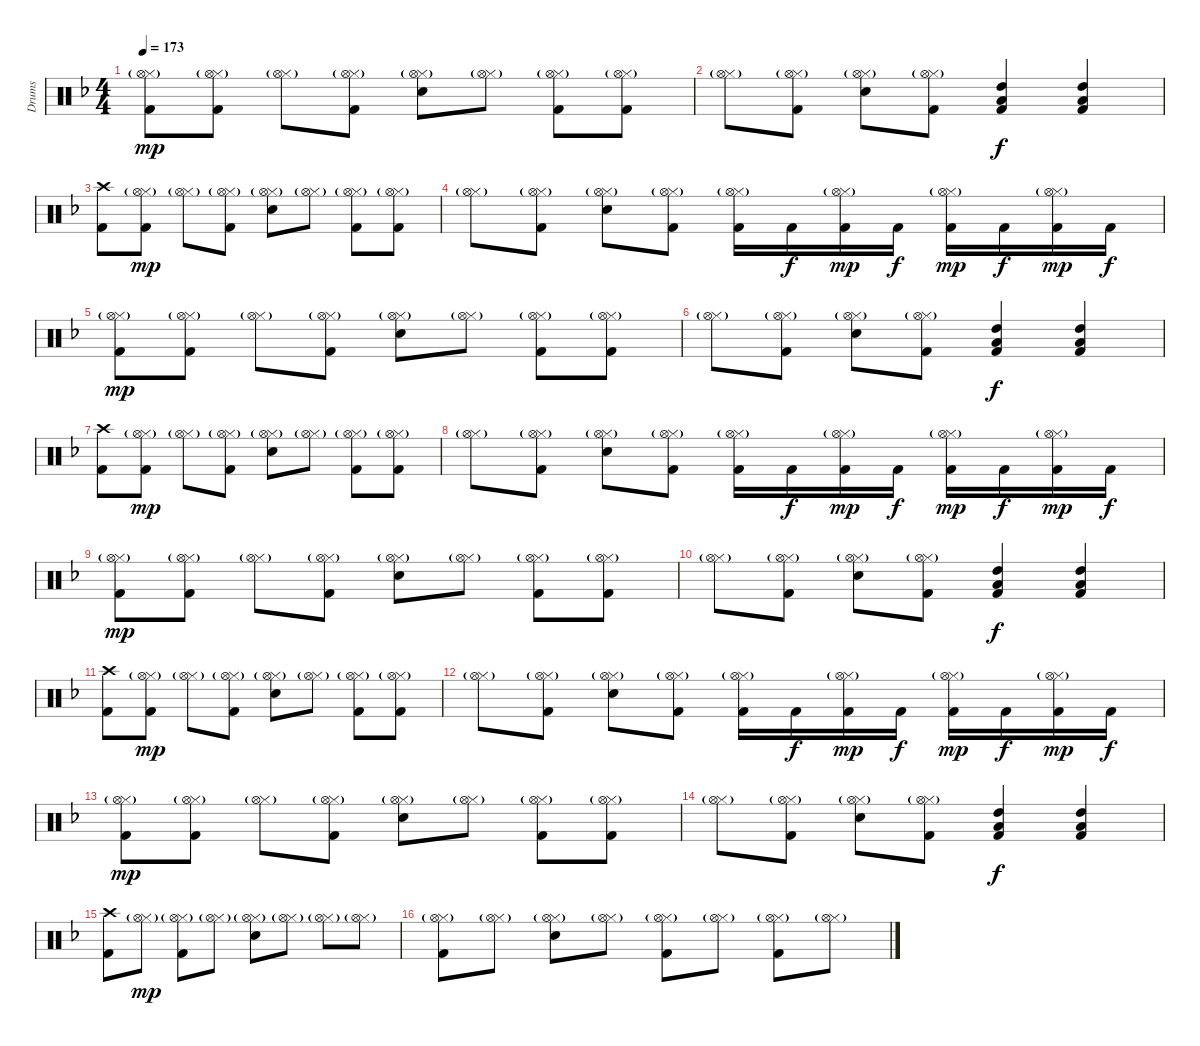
\track ("Drums" "Drums") {instrument percussion}
\staff {score}
\articulation defaults
\ts (4 4)
\tempo 173
\clef neutral
\ks dminor
("Hi-Hat (closed)"{g} "Hi-Hat (open)"{g} "Kick (hit) 2").8{dy mp} ("Hi-Hat (closed)"{g} "Hi-Hat (open)"{g} "Kick (hit) 2").8 ("Hi-Hat (closed)"{g} "Hi-Hat (open)"{g}).8 ("Hi-Hat (closed)"{g} "Hi-Hat (open)"{g} "Kick (hit) 2").8 ("Hi-Hat (closed)"{g} "Hi-Hat (open)"{g} "Snare (hit) 2").8 ("Hi-Hat (closed)"{g} "Hi-Hat (open)"{g}).8 ("Hi-Hat (closed)"{g} "Hi-Hat (open)"{g} "Kick (hit) 2").8 ("Hi-Hat (closed)"{g} "Hi-Hat (open)"{g} "Kick (hit) 2").8 |
("Hi-Hat (closed)"{g} "Hi-Hat (open)"{g}).8 ("Hi-Hat (closed)"{g} "Hi-Hat (open)"{g} "Kick (hit) 2").8 ("Hi-Hat (closed)"{g} "Hi-Hat (open)"{g} "Snare (hit) 2").8 ("Hi-Hat (closed)"{g} "Hi-Hat (open)"{g} "Kick (hit) 2").8 ("High Tom (hit)" "Low Tom (hit)" "Kick (hit) 2").4{dy f} ("High Tom (hit)" "Low Tom (hit)" "Kick (hit) 2").4 |
("Crash high (hit)" "Kick (hit) 2").8 ("Hi-Hat (closed)"{g} "Hi-Hat (open)"{g} "Kick (hit) 2").8{dy mp} ("Hi-Hat (closed)"{g} "Hi-Hat (open)"{g}).8 ("Hi-Hat (closed)"{g} "Hi-Hat (open)"{g} "Kick (hit) 2").8 ("Hi-Hat (closed)"{g} "Hi-Hat (open)"{g} "Snare (hit) 2").8 ("Hi-Hat (closed)"{g} "Hi-Hat (open)"{g}).8 ("Hi-Hat (closed)"{g} "Hi-Hat (open)"{g} "Kick (hit) 2").8 ("Hi-Hat (closed)"{g} "Hi-Hat (open)"{g} "Kick (hit) 2").8 |
("Hi-Hat (closed)"{g} "Hi-Hat (open)"{g}).8 ("Hi-Hat (closed)"{g} "Hi-Hat (open)"{g} "Kick (hit) 2").8 ("Hi-Hat (closed)"{g} "Hi-Hat (open)"{g} "Snare (hit) 2").8 ("Hi-Hat (closed)"{g} "Hi-Hat (open)"{g} "Kick (hit) 2").8 ("Hi-Hat (closed)"{g} "Hi-Hat (open)"{g} "Kick (hit) 2").16 "Kick (hit) 2".16{dy f} ("Hi-Hat (closed)"{g} "Hi-Hat (open)"{g} "Kick (hit) 2").16{dy mp} "Kick (hit) 2".16{dy f} ("Hi-Hat (closed)"{g} "Hi-Hat (open)"{g} "Kick (hit) 2").16{dy mp} "Kick (hit) 2".16{dy f} ("Hi-Hat (closed)"{g} "Hi-Hat (open)"{g} "Kick (hit) 2").16{dy mp} "Kick (hit) 2".16{dy f} |
("Hi-Hat (closed)"{g} "Hi-Hat (open)"{g} "Kick (hit) 2").8{dy mp} ("Hi-Hat (closed)"{g} "Hi-Hat (open)"{g} "Kick (hit) 2").8 ("Hi-Hat (closed)"{g} "Hi-Hat (open)"{g}).8 ("Hi-Hat (closed)"{g} "Hi-Hat (open)"{g} "Kick (hit) 2").8 ("Hi-Hat (closed)"{g} "Hi-Hat (open)"{g} "Snare (hit) 2").8 ("Hi-Hat (closed)"{g} "Hi-Hat (open)"{g}).8 ("Hi-Hat (closed)"{g} "Hi-Hat (open)"{g} "Kick (hit) 2").8 ("Hi-Hat (closed)"{g} "Hi-Hat (open)"{g} "Kick (hit) 2").8 |
("Hi-Hat (closed)"{g} "Hi-Hat (open)"{g}).8 ("Hi-Hat (closed)"{g} "Hi-Hat (open)"{g} "Kick (hit) 2").8 ("Hi-Hat (closed)"{g} "Hi-Hat (open)"{g} "Snare (hit) 2").8 ("Hi-Hat (closed)"{g} "Hi-Hat (open)"{g} "Kick (hit) 2").8 ("High Tom (hit)" "Low Tom (hit)" "Kick (hit) 2").4{dy f} ("High Tom (hit)" "Low Tom (hit)" "Kick (hit) 2").4 |
("Crash high (hit)" "Kick (hit) 2").8 ("Hi-Hat (closed)"{g} "Hi-Hat (open)"{g} "Kick (hit) 2").8{dy mp} ("Hi-Hat (closed)"{g} "Hi-Hat (open)"{g}).8 ("Hi-Hat (closed)"{g} "Hi-Hat (open)"{g} "Kick (hit) 2").8 ("Hi-Hat (closed)"{g} "Hi-Hat (open)"{g} "Snare (hit) 2").8 ("Hi-Hat (closed)"{g} "Hi-Hat (open)"{g}).8 ("Hi-Hat (closed)"{g} "Hi-Hat (open)"{g} "Kick (hit) 2").8 ("Hi-Hat (closed)"{g} "Hi-Hat (open)"{g} "Kick (hit) 2").8 |
("Hi-Hat (closed)"{g} "Hi-Hat (open)"{g}).8 ("Hi-Hat (closed)"{g} "Hi-Hat (open)"{g} "Kick (hit) 2").8 ("Hi-Hat (closed)"{g} "Hi-Hat (open)"{g} "Snare (hit) 2").8 ("Hi-Hat (closed)"{g} "Hi-Hat (open)"{g} "Kick (hit) 2").8 ("Hi-Hat (closed)"{g} "Hi-Hat (open)"{g} "Kick (hit) 2").16 "Kick (hit) 2".16{dy f} ("Hi-Hat (closed)"{g} "Hi-Hat (open)"{g} "Kick (hit) 2").16{dy mp} "Kick (hit) 2".16{dy f} ("Hi-Hat (closed)"{g} "Hi-Hat (open)"{g} "Kick (hit) 2").16{dy mp} "Kick (hit) 2".16{dy f} ("Hi-Hat (closed)"{g} "Hi-Hat (open)"{g} "Kick (hit) 2").16{dy mp} "Kick (hit) 2".16{dy f} |
("Hi-Hat (closed)"{g} "Hi-Hat (open)"{g} "Kick (hit) 2").8{dy mp} ("Hi-Hat (closed)"{g} "Hi-Hat (open)"{g} "Kick (hit) 2").8 ("Hi-Hat (closed)"{g} "Hi-Hat (open)"{g}).8 ("Hi-Hat (closed)"{g} "Hi-Hat (open)"{g} "Kick (hit) 2").8 ("Hi-Hat (closed)"{g} "Hi-Hat (open)"{g} "Snare (hit) 2").8 ("Hi-Hat (closed)"{g} "Hi-Hat (open)"{g}).8 ("Hi-Hat (closed)"{g} "Hi-Hat (open)"{g} "Kick (hit) 2").8 ("Hi-Hat (closed)"{g} "Hi-Hat (open)"{g} "Kick (hit) 2").8 |
("Hi-Hat (closed)"{g} "Hi-Hat (open)"{g}).8 ("Hi-Hat (closed)"{g} "Hi-Hat (open)"{g} "Kick (hit) 2").8 ("Hi-Hat (closed)"{g} "Hi-Hat (open)"{g} "Snare (hit) 2").8 ("Hi-Hat (closed)"{g} "Hi-Hat (open)"{g} "Kick (hit) 2").8 ("High Tom (hit)" "Low Tom (hit)" "Kick (hit) 2").4{dy f} ("High Tom (hit)" "Low Tom (hit)" "Kick (hit) 2").4 |
("Crash high (hit)" "Kick (hit) 2").8 ("Hi-Hat (closed)"{g} "Hi-Hat (open)"{g} "Kick (hit) 2").8{dy mp} ("Hi-Hat (closed)"{g} "Hi-Hat (open)"{g}).8 ("Hi-Hat (closed)"{g} "Hi-Hat (open)"{g} "Kick (hit) 2").8 ("Hi-Hat (closed)"{g} "Hi-Hat (open)"{g} "Snare (hit) 2").8 ("Hi-Hat (closed)"{g} "Hi-Hat (open)"{g}).8 ("Hi-Hat (closed)"{g} "Hi-Hat (open)"{g} "Kick (hit) 2").8 ("Hi-Hat (closed)"{g} "Hi-Hat (open)"{g} "Kick (hit) 2").8 |
("Hi-Hat (closed)"{g} "Hi-Hat (open)"{g}).8 ("Hi-Hat (closed)"{g} "Hi-Hat (open)"{g} "Kick (hit) 2").8 ("Hi-Hat (closed)"{g} "Hi-Hat (open)"{g} "Snare (hit) 2").8 ("Hi-Hat (closed)"{g} "Hi-Hat (open)"{g} "Kick (hit) 2").8 ("Hi-Hat (closed)"{g} "Hi-Hat (open)"{g} "Kick (hit) 2").16 "Kick (hit) 2".16{dy f} ("Hi-Hat (closed)"{g} "Hi-Hat (open)"{g} "Kick (hit) 2").16{dy mp} "Kick (hit) 2".16{dy f} ("Hi-Hat (closed)"{g} "Hi-Hat (open)"{g} "Kick (hit) 2").16{dy mp} "Kick (hit) 2".16{dy f} ("Hi-Hat (closed)"{g} "Hi-Hat (open)"{g} "Kick (hit) 2").16{dy mp} "Kick (hit) 2".16{dy f} |
("Hi-Hat (closed)"{g} "Hi-Hat (open)"{g} "Kick (hit) 2").8{dy mp} ("Hi-Hat (closed)"{g} "Hi-Hat (open)"{g} "Kick (hit) 2").8 ("Hi-Hat (closed)"{g} "Hi-Hat (open)"{g}).8 ("Hi-Hat (closed)"{g} "Hi-Hat (open)"{g} "Kick (hit) 2").8 ("Hi-Hat (closed)"{g} "Hi-Hat (open)"{g} "Snare (hit) 2").8 ("Hi-Hat (closed)"{g} "Hi-Hat (open)"{g}).8 ("Hi-Hat (closed)"{g} "Hi-Hat (open)"{g} "Kick (hit) 2").8 ("Hi-Hat (closed)"{g} "Hi-Hat (open)"{g} "Kick (hit) 2").8 |
("Hi-Hat (closed)"{g} "Hi-Hat (open)"{g}).8 ("Hi-Hat (closed)"{g} "Hi-Hat (open)"{g} "Kick (hit) 2").8 ("Hi-Hat (closed)"{g} "Hi-Hat (open)"{g} "Snare (hit) 2").8 ("Hi-Hat (closed)"{g} "Hi-Hat (open)"{g} "Kick (hit) 2").8 ("High Tom (hit)" "Low Tom (hit)" "Kick (hit) 2").4{dy f} ("High Tom (hit)" "Low Tom (hit)" "Kick (hit) 2").4 |
("Crash high (hit)" "Kick (hit) 2").8 ("Hi-Hat (closed)"{g} "Hi-Hat (open)"{g}).8{dy mp} ("Hi-Hat (closed)"{g} "Hi-Hat (open)"{g} "Kick (hit) 2").8 ("Hi-Hat (closed)"{g} "Hi-Hat (open)"{g}).8 ("Hi-Hat (closed)"{g} "Hi-Hat (open)"{g} "Snare (hit) 2").8 ("Hi-Hat (closed)"{g} "Hi-Hat (open)"{g}).8 ("Hi-Hat (closed)"{g} "Hi-Hat (open)"{g}).8 ("Hi-Hat (closed)"{g} "Hi-Hat (open)"{g}).8 |
("Hi-Hat (closed)"{g} "Hi-Hat (open)"{g} "Kick (hit) 2").8 ("Hi-Hat (closed)"{g} "Hi-Hat (open)"{g}).8 ("Hi-Hat (closed)"{g} "Hi-Hat (open)"{g} "Snare (hit) 2").8 ("Hi-Hat (closed)"{g} "Hi-Hat (open)"{g}).8 ("Hi-Hat (closed)"{g} "Hi-Hat (open)"{g} "Kick (hit) 2").8 ("Hi-Hat (closed)"{g} "Hi-Hat (open)"{g}).8 ("Hi-Hat (closed)"{g} "Hi-Hat (open)"{g} "Kick (hit) 2").8 ("Hi-Hat (closed)"{g} "Hi-Hat (open)"{g}).8
